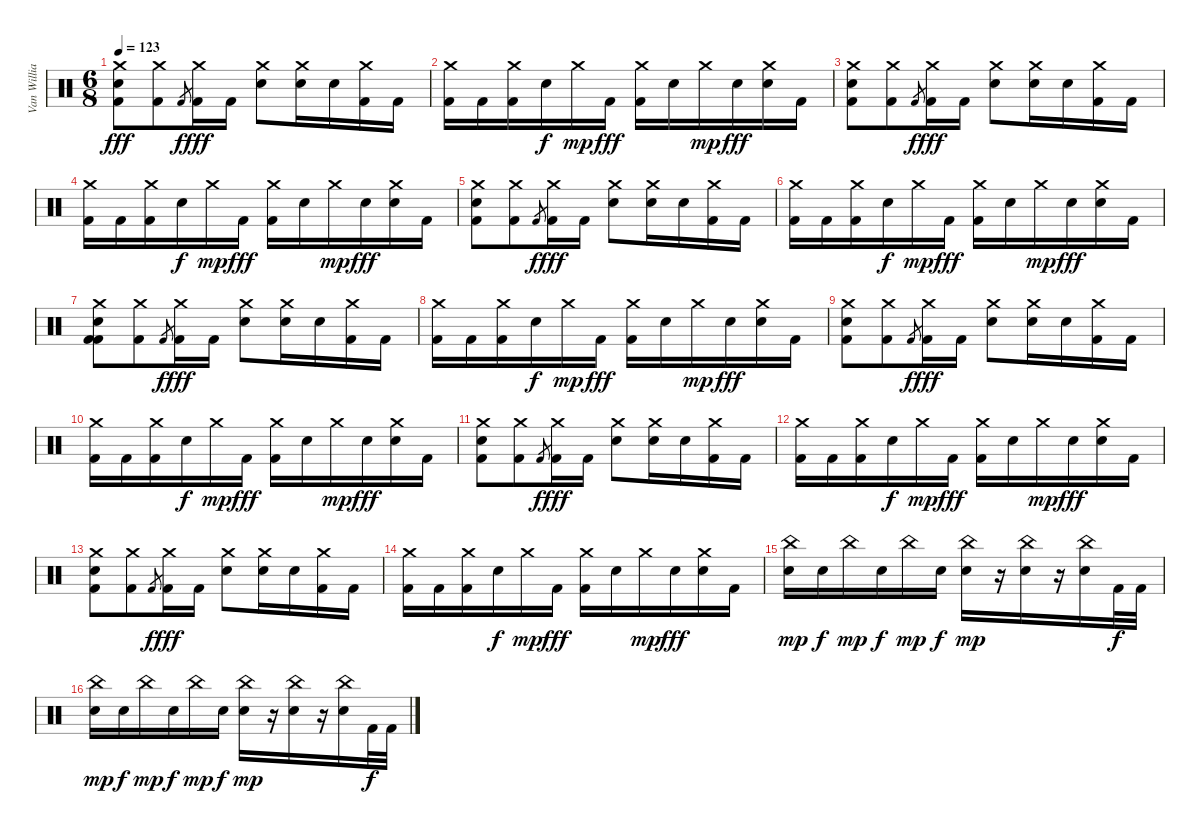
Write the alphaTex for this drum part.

\track ("Van Williams" "Van Willia") {instrument percussion}
\staff {score}
\articulation defaults
\ts (6 8)
\tempo 123
\clef neutral
\ks c
("Crash medium (hit)" "Electric Snare (hit)" "Kick (hit) 2").8{dy fff} ("Crash medium (hit)" "Kick (hit) 2").8 "Kick (hit) 2".8{gr dy f} ("Crash medium (hit)" "Kick (hit) 2").16{dy fff} "Kick (hit) 2".16 ("Crash medium (hit)" "Electric Snare (hit)").8 ("Crash medium (hit)" "Electric Snare (hit)").16 "Electric Snare (hit)".16 ("Crash medium (hit)" "Kick (hit) 2").16 "Kick (hit) 2".16 |
("Crash medium (hit)" "Kick (hit) 2").16 "Kick (hit) 2".16 ("Crash medium (hit)" "Kick (hit) 2").16 "Electric Snare (hit)".16{dy f} "Crash medium (hit)".16{dy mp} "Kick (hit) 2".16{dy fff} ("Crash medium (hit)" "Kick (hit) 2").16 "Electric Snare (hit)".16 "Crash medium (hit)".16{dy mp} "Electric Snare (hit)".16{dy fff} ("Crash medium (hit)" "Electric Snare (hit)").16 "Kick (hit) 2".16 |
("Crash medium (hit)" "Electric Snare (hit)" "Kick (hit) 2").8 ("Crash medium (hit)" "Kick (hit) 2").8 "Kick (hit) 2".8{gr dy f} ("Crash medium (hit)" "Kick (hit) 2").16{dy fff} "Kick (hit) 2".16 ("Crash medium (hit)" "Electric Snare (hit)").8 ("Crash medium (hit)" "Electric Snare (hit)").16 "Electric Snare (hit)".16 ("Crash medium (hit)" "Kick (hit) 2").16 "Kick (hit) 2".16 |
("Crash medium (hit)" "Kick (hit) 2").16 "Kick (hit) 2".16 ("Crash medium (hit)" "Kick (hit) 2").16 "Electric Snare (hit)".16{dy f} "Crash medium (hit)".16{dy mp} "Kick (hit) 2".16{dy fff} ("Crash medium (hit)" "Kick (hit) 2").16 "Electric Snare (hit)".16 "Crash medium (hit)".16{dy mp} "Electric Snare (hit)".16{dy fff} ("Crash medium (hit)" "Electric Snare (hit)").16 "Kick (hit) 2".16 |
("Crash medium (hit)" "Electric Snare (hit)" "Kick (hit) 2").8 ("Crash medium (hit)" "Kick (hit) 2").8 "Kick (hit) 2".8{gr dy f} ("Crash medium (hit)" "Kick (hit) 2").16{dy fff} "Kick (hit) 2".16 ("Crash medium (hit)" "Electric Snare (hit)").8 ("Crash medium (hit)" "Electric Snare (hit)").16 "Electric Snare (hit)".16 ("Crash medium (hit)" "Kick (hit) 2").16 "Kick (hit) 2".16 |
("Crash medium (hit)" "Kick (hit) 2").16 "Kick (hit) 2".16 ("Crash medium (hit)" "Kick (hit) 2").16 "Electric Snare (hit)".16{dy f} "Crash medium (hit)".16{dy mp} "Kick (hit) 2".16{dy fff} ("Crash medium (hit)" "Kick (hit) 2").16 "Electric Snare (hit)".16 "Crash medium (hit)".16{dy mp} "Electric Snare (hit)".16{dy fff} ("Crash medium (hit)" "Electric Snare (hit)").16 "Kick (hit) 2".16 |
("Crash medium (hit)" "Electric Snare (hit)" "Kick (hit) 2" "Kick (hit) 2").8 ("Crash medium (hit)" "Kick (hit) 2").8 "Kick (hit) 2".8{gr dy f} ("Crash medium (hit)" "Kick (hit) 2").16{dy fff} "Kick (hit) 2".16 ("Crash medium (hit)" "Electric Snare (hit)").8 ("Crash medium (hit)" "Electric Snare (hit)").16 "Electric Snare (hit)".16 ("Crash medium (hit)" "Kick (hit) 2").16 "Kick (hit) 2".16 |
("Crash medium (hit)" "Kick (hit) 2").16 "Kick (hit) 2".16 ("Crash medium (hit)" "Kick (hit) 2").16 "Electric Snare (hit)".16{dy f} "Crash medium (hit)".16{dy mp} "Kick (hit) 2".16{dy fff} ("Crash medium (hit)" "Kick (hit) 2").16 "Electric Snare (hit)".16 "Crash medium (hit)".16{dy mp} "Electric Snare (hit)".16{dy fff} ("Crash medium (hit)" "Electric Snare (hit)").16 "Kick (hit) 2".16 |
("Crash medium (hit)" "Electric Snare (hit)" "Kick (hit) 2").8 ("Crash medium (hit)" "Kick (hit) 2").8 "Kick (hit) 2".8{gr dy f} ("Crash medium (hit)" "Kick (hit) 2").16{dy fff} "Kick (hit) 2".16 ("Crash medium (hit)" "Electric Snare (hit)").8 ("Crash medium (hit)" "Electric Snare (hit)").16 "Electric Snare (hit)".16 ("Crash medium (hit)" "Kick (hit) 2").16 "Kick (hit) 2".16 |
("Crash medium (hit)" "Kick (hit) 2").16 "Kick (hit) 2".16 ("Crash medium (hit)" "Kick (hit) 2").16 "Electric Snare (hit)".16{dy f} "Crash medium (hit)".16{dy mp} "Kick (hit) 2".16{dy fff} ("Crash medium (hit)" "Kick (hit) 2").16 "Electric Snare (hit)".16 "Crash medium (hit)".16{dy mp} "Electric Snare (hit)".16{dy fff} ("Crash medium (hit)" "Electric Snare (hit)").16 "Kick (hit) 2".16 |
("Crash medium (hit)" "Electric Snare (hit)" "Kick (hit) 2").8 ("Crash medium (hit)" "Kick (hit) 2").8 "Kick (hit) 2".8{gr dy f} ("Crash medium (hit)" "Kick (hit) 2").16{dy fff} "Kick (hit) 2".16 ("Crash medium (hit)" "Electric Snare (hit)").8 ("Crash medium (hit)" "Electric Snare (hit)").16 "Electric Snare (hit)".16 ("Crash medium (hit)" "Kick (hit) 2").16 "Kick (hit) 2".16 |
("Crash medium (hit)" "Kick (hit) 2").16 "Kick (hit) 2".16 ("Crash medium (hit)" "Kick (hit) 2").16 "Electric Snare (hit)".16{dy f} "Crash medium (hit)".16{dy mp} "Kick (hit) 2".16{dy fff} ("Crash medium (hit)" "Kick (hit) 2").16 "Electric Snare (hit)".16 "Crash medium (hit)".16{dy mp} "Electric Snare (hit)".16{dy fff} ("Crash medium (hit)" "Electric Snare (hit)").16 "Kick (hit) 2".16 |
("Crash medium (hit)" "Electric Snare (hit)" "Kick (hit) 2").8 ("Crash medium (hit)" "Kick (hit) 2").8 "Kick (hit) 2".8{gr dy f} ("Crash medium (hit)" "Kick (hit) 2").16{dy fff} "Kick (hit) 2".16 ("Crash medium (hit)" "Electric Snare (hit)").8 ("Crash medium (hit)" "Electric Snare (hit)").16 "Electric Snare (hit)".16 ("Crash medium (hit)" "Kick (hit) 2").16 "Kick (hit) 2".16 |
("Crash medium (hit)" "Kick (hit) 2").16 "Kick (hit) 2".16 ("Crash medium (hit)" "Kick (hit) 2").16 "Electric Snare (hit)".16{dy f} "Crash medium (hit)".16{dy mp} "Kick (hit) 2".16{dy fff} ("Crash medium (hit)" "Kick (hit) 2").16 "Electric Snare (hit)".16 "Crash medium (hit)".16{dy mp} "Electric Snare (hit)".16{dy fff} ("Crash medium (hit)" "Electric Snare (hit)").16 "Kick (hit) 2".16 |
("China (hit)" "Electric Snare (hit)").16{dy mp} "Electric Snare (hit)".16{dy f} "China (hit)".16{dy mp} "Electric Snare (hit)".16{dy f} "China (hit)".16{dy mp} "Electric Snare (hit)".16{dy f} ("China (hit)" "Electric Snare (hit)").16{dy mp} r.16 ("China (hit)" "Electric Snare (hit)").16 r.16 ("China (hit)" "Electric Snare (hit)").16 "Kick (hit) 2".32{dy f} "Kick (hit) 2".32 |
("China (hit)" "Electric Snare (hit)").16{dy mp} "Electric Snare (hit)".16{dy f} "China (hit)".16{dy mp} "Electric Snare (hit)".16{dy f} "China (hit)".16{dy mp} "Electric Snare (hit)".16{dy f} ("China (hit)" "Electric Snare (hit)").16{dy mp} r.16 ("China (hit)" "Electric Snare (hit)").16 r.16 ("China (hit)" "Electric Snare (hit)").16 "Kick (hit) 2".32{dy f} "Kick (hit) 2".32
